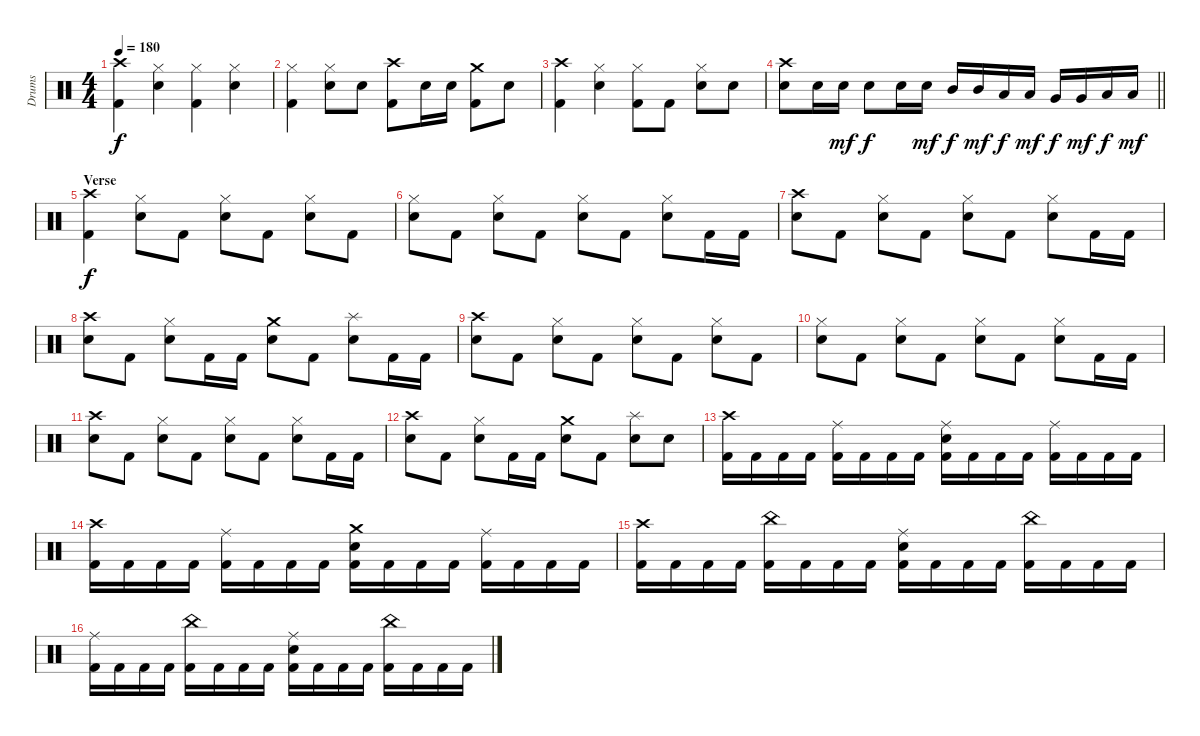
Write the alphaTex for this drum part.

\track ("Drums" "Drums") {instrument percussion}
\staff {score}
\articulation defaults
\ts (4 4)
\tempo 180
\clef neutral
\ks c
("Kick (hit) 2" "Crash high (hit)").4{dy f} ("Hi-Hat (closed)" "Electric Snare (hit)").4 ("Kick (hit) 2" "Hi-Hat (closed)").4 ("Hi-Hat (closed)" "Electric Snare (hit)").4 |
("Kick (hit) 2" "Hi-Hat (closed)").4 ("Hi-Hat (closed)" "Electric Snare (hit)").8 "Electric Snare (hit)".8 ("Kick (hit) 2" "Crash high (hit)").8 "Electric Snare (hit)".16 "Electric Snare (hit)".16 ("Kick (hit) 2" "Crash medium (hit)").8 "Electric Snare (hit)".8 |
("Kick (hit) 2" "Crash high (hit)").4 ("Hi-Hat (closed)" "Electric Snare (hit)").4 ("Kick (hit) 2" "Hi-Hat (closed)").8 "Kick (hit) 2".8 ("Hi-Hat (closed)" "Electric Snare (hit)").8 "Electric Snare (hit)".8 |
\barLineRight lightlight
("Crash high (hit)" "Electric Snare (hit)").8 "Electric Snare (hit)".16 "Electric Snare (hit)".16{dy mf} "Electric Snare (hit)".8{dy f} "Electric Snare (hit)".16 "Electric Snare (hit)".16{dy mf} "Mid Tom (hit)".16{dy f} "Mid Tom (hit)".16{dy mf} "Low Tom (hit)".16{dy f} "Low Tom (hit)".16{dy mf} "Very Low Tom (hit)".16{dy f} "Very Low Tom (hit)".16{dy mf} "Low Floor Tom (hit)".16{dy f} "Low Floor Tom (hit)".16{dy mf} |
\section ("" "Verse")
("Kick (hit) 2" "Crash high (hit)").4{dy f} ("Hi-Hat (closed)" "Electric Snare (hit)").8 "Kick (hit) 2".8 ("Hi-Hat (closed)" "Electric Snare (hit)").8 "Kick (hit) 2".8 ("Hi-Hat (closed)" "Electric Snare (hit)").8 "Kick (hit) 2".8 |
("Hi-Hat (closed)" "Electric Snare (hit)").8 "Kick (hit) 2".8 ("Hi-Hat (closed)" "Electric Snare (hit)").8 "Kick (hit) 2".8 ("Hi-Hat (closed)" "Electric Snare (hit)").8 "Kick (hit) 2".8 ("Hi-Hat (closed)" "Electric Snare (hit)").8 "Kick (hit) 2".16 "Kick (hit) 2".16 |
("Crash high (hit)" "Electric Snare (hit)").8 "Kick (hit) 2".8 ("Hi-Hat (closed)" "Electric Snare (hit)").8 "Kick (hit) 2".8 ("Hi-Hat (closed)" "Electric Snare (hit)").8 "Kick (hit) 2".8 ("Hi-Hat (closed)" "Electric Snare (hit)").8 "Kick (hit) 2".16 "Kick (hit) 2".16 |
("Crash high (hit)" "Electric Snare (hit)").8 "Kick (hit) 2".8 ("Hi-Hat (closed)" "Electric Snare (hit)").8 "Kick (hit) 2".16 "Kick (hit) 2".16 ("Crash medium (hit)" "Electric Snare (hit)").8 "Kick (hit) 2".8 ("Splash (hit)" "Electric Snare (hit)").8 "Kick (hit) 2".16 "Kick (hit) 2".16 |
("Crash high (hit)" "Electric Snare (hit)").8 "Kick (hit) 2".8 ("Hi-Hat (closed)" "Electric Snare (hit)").8 "Kick (hit) 2".8 ("Hi-Hat (closed)" "Electric Snare (hit)").8 "Kick (hit) 2".8 ("Hi-Hat (closed)" "Electric Snare (hit)").8 "Kick (hit) 2".8 |
("Hi-Hat (closed)" "Electric Snare (hit)").8 "Kick (hit) 2".8 ("Hi-Hat (closed)" "Electric Snare (hit)").8 "Kick (hit) 2".8 ("Hi-Hat (closed)" "Electric Snare (hit)").8 "Kick (hit) 2".8 ("Hi-Hat (closed)" "Electric Snare (hit)").8 "Kick (hit) 2".16 "Kick (hit) 2".16 |
("Crash high (hit)" "Electric Snare (hit)").8 "Kick (hit) 2".8 ("Hi-Hat (closed)" "Electric Snare (hit)").8 "Kick (hit) 2".8 ("Hi-Hat (closed)" "Electric Snare (hit)").8 "Kick (hit) 2".8 ("Hi-Hat (closed)" "Electric Snare (hit)").8 "Kick (hit) 2".16 "Kick (hit) 2".16 |
("Crash high (hit)" "Electric Snare (hit)").8 "Kick (hit) 2".8 ("Hi-Hat (closed)" "Electric Snare (hit)").8 "Kick (hit) 2".16 "Kick (hit) 2".16 ("Crash medium (hit)" "Electric Snare (hit)").8 "Kick (hit) 2".8 ("Splash (hit)" "Electric Snare (hit)").8 "Electric Snare (hit)".8 |
("Kick (hit) 2" "Crash high (hit)").16 "Kick (hit) 2".16 "Kick (hit) 2".16 "Kick (hit) 2".16 ("Kick (hit) 2" "Ride (middle)").16 "Kick (hit) 2".16 "Kick (hit) 2".16 "Kick (hit) 2".16 ("Kick (hit) 2" "Ride (middle)" "Electric Snare (hit)").16 "Kick (hit) 2".16 "Kick (hit) 2".16 "Kick (hit) 2".16 ("Kick (hit) 2" "Ride (middle)").16 "Kick (hit) 2".16 "Kick (hit) 2".16 "Kick (hit) 2".16 |
("Kick (hit) 2" "Crash high (hit)").16 "Kick (hit) 2".16 "Kick (hit) 2".16 "Kick (hit) 2".16 ("Kick (hit) 2" "Ride (middle)").16 "Kick (hit) 2".16 "Kick (hit) 2".16 "Kick (hit) 2".16 ("Kick (hit) 2" "Crash medium (hit)" "Electric Snare (hit)").16 "Kick (hit) 2".16 "Kick (hit) 2".16 "Kick (hit) 2".16 ("Kick (hit) 2" "Ride (middle)").16 "Kick (hit) 2".16 "Kick (hit) 2".16 "Kick (hit) 2".16 |
("Kick (hit) 2" "Crash high (hit)").16 "Kick (hit) 2".16 "Kick (hit) 2".16 "Kick (hit) 2".16 ("Kick (hit) 2" "China (hit)").16 "Kick (hit) 2".16 "Kick (hit) 2".16 "Kick (hit) 2".16 ("Kick (hit) 2" "Ride (middle)" "Electric Snare (hit)").16 "Kick (hit) 2".16 "Kick (hit) 2".16 "Kick (hit) 2".16 ("Kick (hit) 2" "China (hit)").16 "Kick (hit) 2".16 "Kick (hit) 2".16 "Kick (hit) 2".16 |
("Kick (hit) 2" "Ride (middle)").16 "Kick (hit) 2".16 "Kick (hit) 2".16 "Kick (hit) 2".16 ("Kick (hit) 2" "China (hit)").16 "Kick (hit) 2".16 "Kick (hit) 2".16 "Kick (hit) 2".16 ("Kick (hit) 2" "Ride (middle)" "Electric Snare (hit)").16 "Kick (hit) 2".16 "Kick (hit) 2".16 "Kick (hit) 2".16 ("Kick (hit) 2" "China (hit)").16 "Kick (hit) 2".16 "Kick (hit) 2".16 "Kick (hit) 2".16
